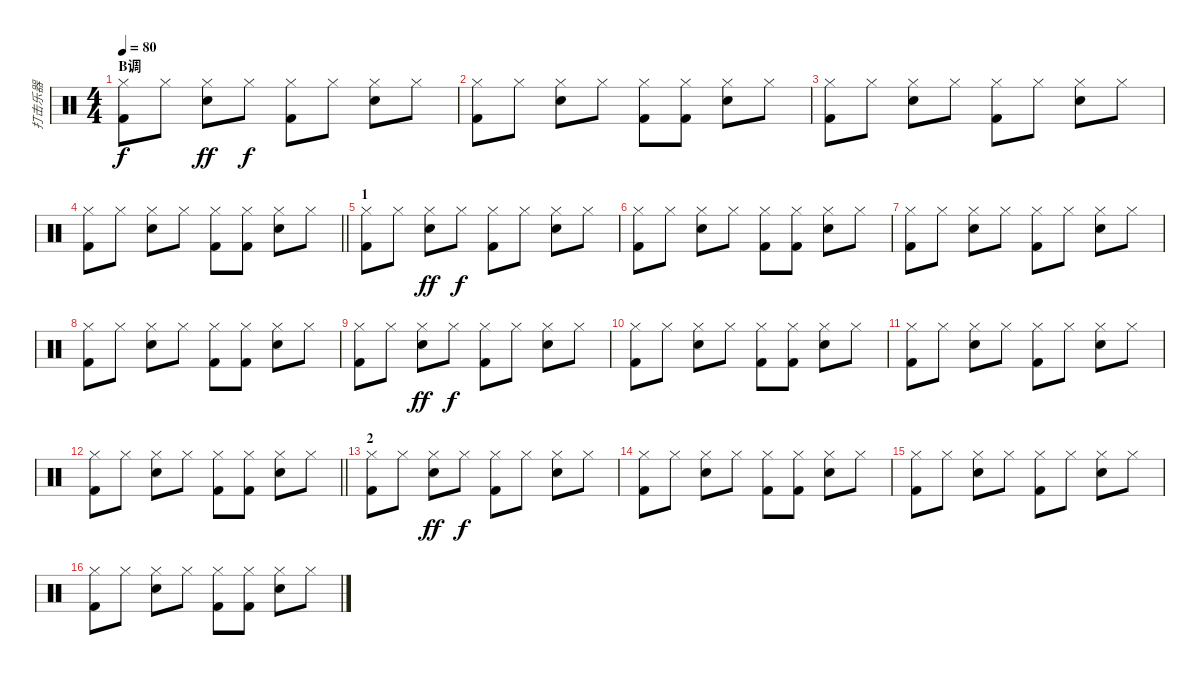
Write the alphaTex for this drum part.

\track ("打击乐器" "打击乐器") {instrument percussion}
\staff {score}
\articulation defaults
\ts (4 4)
\section ("" "B调")
\tempo 80
\clef neutral
\ks c
("Hi-Hat (closed)" "Kick (hit) 2").8{dy f} "Hi-Hat (closed)".8 ("Hi-Hat (closed)" "Snare (hit) 2").8{dy ff} "Hi-Hat (closed)".8{dy f} ("Hi-Hat (closed)" "Kick (hit) 2").8 "Hi-Hat (closed)".8 ("Hi-Hat (closed)" "Snare (hit) 2").8 "Hi-Hat (closed)".8 |
("Hi-Hat (closed)" "Kick (hit) 2").8 "Hi-Hat (closed)".8 ("Hi-Hat (closed)" "Snare (hit) 2").8 "Hi-Hat (closed)".8 ("Hi-Hat (closed)" "Kick (hit) 2").8 ("Hi-Hat (closed)" "Kick (hit) 2").8 ("Hi-Hat (closed)" "Snare (hit) 2").8 "Hi-Hat (closed)".8 |
("Hi-Hat (closed)" "Kick (hit) 2").8 "Hi-Hat (closed)".8 ("Hi-Hat (closed)" "Snare (hit) 2").8 "Hi-Hat (closed)".8 ("Hi-Hat (closed)" "Kick (hit) 2").8 "Hi-Hat (closed)".8 ("Hi-Hat (closed)" "Snare (hit) 2").8 "Hi-Hat (closed)".8 |
\barLineRight lightlight
("Hi-Hat (closed)" "Kick (hit) 2").8 "Hi-Hat (closed)".8 ("Hi-Hat (closed)" "Snare (hit) 2").8 "Hi-Hat (closed)".8 ("Hi-Hat (closed)" "Kick (hit) 2").8 ("Hi-Hat (closed)" "Kick (hit) 2").8 ("Hi-Hat (closed)" "Snare (hit) 2").8 "Hi-Hat (closed)".8 |
\section ("" "1")
("Hi-Hat (closed)" "Kick (hit) 2").8 "Hi-Hat (closed)".8 ("Hi-Hat (closed)" "Snare (hit) 2").8{dy ff} "Hi-Hat (closed)".8{dy f} ("Hi-Hat (closed)" "Kick (hit) 2").8 "Hi-Hat (closed)".8 ("Hi-Hat (closed)" "Snare (hit) 2").8 "Hi-Hat (closed)".8 |
("Hi-Hat (closed)" "Kick (hit) 2").8 "Hi-Hat (closed)".8 ("Hi-Hat (closed)" "Snare (hit) 2").8 "Hi-Hat (closed)".8 ("Hi-Hat (closed)" "Kick (hit) 2").8 ("Hi-Hat (closed)" "Kick (hit) 2").8 ("Hi-Hat (closed)" "Snare (hit) 2").8 "Hi-Hat (closed)".8 |
("Hi-Hat (closed)" "Kick (hit) 2").8 "Hi-Hat (closed)".8 ("Hi-Hat (closed)" "Snare (hit) 2").8 "Hi-Hat (closed)".8 ("Hi-Hat (closed)" "Kick (hit) 2").8 "Hi-Hat (closed)".8 ("Hi-Hat (closed)" "Snare (hit) 2").8 "Hi-Hat (closed)".8 |
("Hi-Hat (closed)" "Kick (hit) 2").8 "Hi-Hat (closed)".8 ("Hi-Hat (closed)" "Snare (hit) 2").8 "Hi-Hat (closed)".8 ("Hi-Hat (closed)" "Kick (hit) 2").8 ("Hi-Hat (closed)" "Kick (hit) 2").8 ("Hi-Hat (closed)" "Snare (hit) 2").8 "Hi-Hat (closed)".8 |
("Hi-Hat (closed)" "Kick (hit) 2").8 "Hi-Hat (closed)".8 ("Hi-Hat (closed)" "Snare (hit) 2").8{dy ff} "Hi-Hat (closed)".8{dy f} ("Hi-Hat (closed)" "Kick (hit) 2").8 "Hi-Hat (closed)".8 ("Hi-Hat (closed)" "Snare (hit) 2").8 "Hi-Hat (closed)".8 |
("Hi-Hat (closed)" "Kick (hit) 2").8 "Hi-Hat (closed)".8 ("Hi-Hat (closed)" "Snare (hit) 2").8 "Hi-Hat (closed)".8 ("Hi-Hat (closed)" "Kick (hit) 2").8 ("Hi-Hat (closed)" "Kick (hit) 2").8 ("Hi-Hat (closed)" "Snare (hit) 2").8 "Hi-Hat (closed)".8 |
("Hi-Hat (closed)" "Kick (hit) 2").8 "Hi-Hat (closed)".8 ("Hi-Hat (closed)" "Snare (hit) 2").8 "Hi-Hat (closed)".8 ("Hi-Hat (closed)" "Kick (hit) 2").8 "Hi-Hat (closed)".8 ("Hi-Hat (closed)" "Snare (hit) 2").8 "Hi-Hat (closed)".8 |
\barLineRight lightlight
("Hi-Hat (closed)" "Kick (hit) 2").8 "Hi-Hat (closed)".8 ("Hi-Hat (closed)" "Snare (hit) 2").8 "Hi-Hat (closed)".8 ("Hi-Hat (closed)" "Kick (hit) 2").8 ("Hi-Hat (closed)" "Kick (hit) 2").8 ("Hi-Hat (closed)" "Snare (hit) 2").8 "Hi-Hat (closed)".8 |
\section ("" "2")
("Hi-Hat (closed)" "Kick (hit) 2").8 "Hi-Hat (closed)".8 ("Hi-Hat (closed)" "Snare (hit) 2").8{dy ff} "Hi-Hat (closed)".8{dy f} ("Hi-Hat (closed)" "Kick (hit) 2").8 "Hi-Hat (closed)".8 ("Hi-Hat (closed)" "Snare (hit) 2").8 "Hi-Hat (closed)".8 |
("Hi-Hat (closed)" "Kick (hit) 2").8 "Hi-Hat (closed)".8 ("Hi-Hat (closed)" "Snare (hit) 2").8 "Hi-Hat (closed)".8 ("Hi-Hat (closed)" "Kick (hit) 2").8 ("Hi-Hat (closed)" "Kick (hit) 2").8 ("Hi-Hat (closed)" "Snare (hit) 2").8 "Hi-Hat (closed)".8 |
("Hi-Hat (closed)" "Kick (hit) 2").8 "Hi-Hat (closed)".8 ("Hi-Hat (closed)" "Snare (hit) 2").8 "Hi-Hat (closed)".8 ("Hi-Hat (closed)" "Kick (hit) 2").8 "Hi-Hat (closed)".8 ("Hi-Hat (closed)" "Snare (hit) 2").8 "Hi-Hat (closed)".8 |
("Hi-Hat (closed)" "Kick (hit) 2").8 "Hi-Hat (closed)".8 ("Hi-Hat (closed)" "Snare (hit) 2").8 "Hi-Hat (closed)".8 ("Hi-Hat (closed)" "Kick (hit) 2").8 ("Hi-Hat (closed)" "Kick (hit) 2").8 ("Hi-Hat (closed)" "Snare (hit) 2").8 "Hi-Hat (closed)".8
